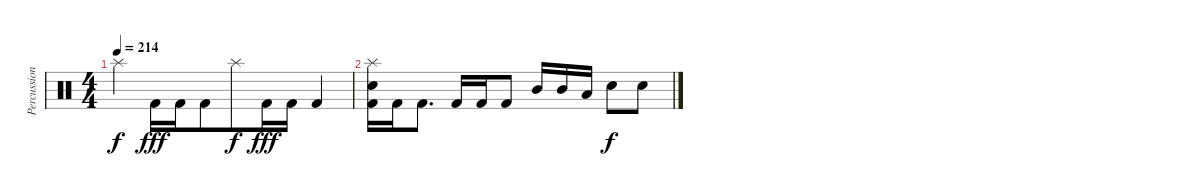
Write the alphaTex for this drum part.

\track ("Percussion" "Percussion") {instrument percussion}
\staff {score}
\articulation defaults
\ts (4 4)
\tempo 214
\clef neutral
\ks c "Splash (hit)".4{dy f} "Kick (hit) 2".16{dy fff} "Kick (hit) 2".16 "Kick (hit) 2".8{beam merge} "Splash (hit)".8{dy f} "Kick (hit) 2".16{dy fff} "Kick (hit) 2".16 "Kick (hit) 2".4
|
("Splash (hit)" "Electric Snare (hit)" "Kick (hit) 2").16 "Kick (hit) 2".16 "Kick (hit) 2".8{d} "Kick (hit) 2".16 "Kick (hit) 2".16 "Kick (hit) 2".8 "Mid Tom (hit)".16 "Mid Tom (hit)".16 "Low Tom (hit)".16 "Electric Snare (hit)".8{dy f} "Electric Snare (hit)".8
